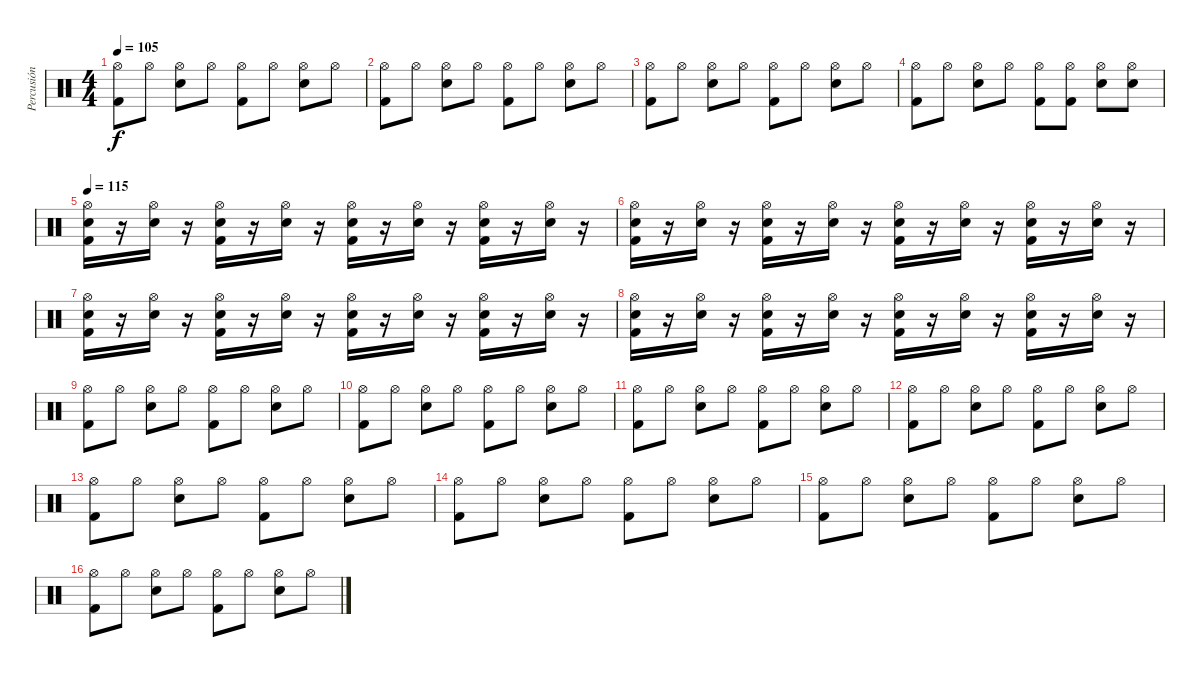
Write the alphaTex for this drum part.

\track ("Percusión" "Percusión") {instrument percussion}
\staff {score}
\articulation defaults
\ts (4 4)
\tempo 105
\clef neutral
\ks c
("Kick (hit) 2" "Hi-Hat (open)").8{dy f} "Hi-Hat (open)".8 ("Electric Snare (hit)" "Hi-Hat (open)").8 "Hi-Hat (open)".8 ("Kick (hit) 2" "Hi-Hat (open)").8 "Hi-Hat (open)".8 ("Electric Snare (hit)" "Hi-Hat (open)").8 "Hi-Hat (open)".8 |
("Kick (hit) 2" "Hi-Hat (open)").8 "Hi-Hat (open)".8 ("Electric Snare (hit)" "Hi-Hat (open)").8 "Hi-Hat (open)".8 ("Kick (hit) 2" "Hi-Hat (open)").8 "Hi-Hat (open)".8 ("Electric Snare (hit)" "Hi-Hat (open)").8 "Hi-Hat (open)".8 |
("Kick (hit) 2" "Hi-Hat (open)").8 "Hi-Hat (open)".8 ("Electric Snare (hit)" "Hi-Hat (open)").8 "Hi-Hat (open)".8 ("Kick (hit) 2" "Hi-Hat (open)").8 "Hi-Hat (open)".8 ("Electric Snare (hit)" "Hi-Hat (open)").8 "Hi-Hat (open)".8 |
("Kick (hit) 2" "Hi-Hat (open)").8 "Hi-Hat (open)".8 ("Electric Snare (hit)" "Hi-Hat (open)").8 "Hi-Hat (open)".8 ("Kick (hit) 2" "Hi-Hat (open)").8 ("Kick (hit) 2" "Hi-Hat (open)").8 ("Electric Snare (hit)" "Hi-Hat (open)").8 ("Electric Snare (hit)" "Hi-Hat (open)").8 |
\tempo 115
("Kick (hit) 2" "Electric Snare (hit)" "Hi-Hat (open)").16 r.16 ("Electric Snare (hit)" "Hi-Hat (open)").16 r.16 ("Kick (hit) 2" "Electric Snare (hit)" "Hi-Hat (open)").16 r.16 ("Electric Snare (hit)" "Hi-Hat (open)").16 r.16 ("Kick (hit) 2" "Electric Snare (hit)" "Hi-Hat (open)").16 r.16 ("Electric Snare (hit)" "Hi-Hat (open)").16 r.16 ("Kick (hit) 2" "Electric Snare (hit)" "Hi-Hat (open)").16 r.16 ("Electric Snare (hit)" "Hi-Hat (open)").16 r.16 |
("Kick (hit) 2" "Electric Snare (hit)" "Hi-Hat (open)").16 r.16 ("Electric Snare (hit)" "Hi-Hat (open)").16 r.16 ("Kick (hit) 2" "Electric Snare (hit)" "Hi-Hat (open)").16 r.16 ("Electric Snare (hit)" "Hi-Hat (open)").16 r.16 ("Kick (hit) 2" "Electric Snare (hit)" "Hi-Hat (open)").16 r.16 ("Electric Snare (hit)" "Hi-Hat (open)").16 r.16 ("Kick (hit) 2" "Electric Snare (hit)" "Hi-Hat (open)").16 r.16 ("Electric Snare (hit)" "Hi-Hat (open)").16 r.16 |
("Kick (hit) 2" "Electric Snare (hit)" "Hi-Hat (open)").16 r.16 ("Electric Snare (hit)" "Hi-Hat (open)").16 r.16 ("Kick (hit) 2" "Electric Snare (hit)" "Hi-Hat (open)").16 r.16 ("Electric Snare (hit)" "Hi-Hat (open)").16 r.16 ("Kick (hit) 2" "Electric Snare (hit)" "Hi-Hat (open)").16 r.16 ("Electric Snare (hit)" "Hi-Hat (open)").16 r.16 ("Kick (hit) 2" "Electric Snare (hit)" "Hi-Hat (open)").16 r.16 ("Electric Snare (hit)" "Hi-Hat (open)").16 r.16 |
("Kick (hit) 2" "Electric Snare (hit)" "Hi-Hat (open)").16 r.16 ("Electric Snare (hit)" "Hi-Hat (open)").16 r.16 ("Kick (hit) 2" "Electric Snare (hit)" "Hi-Hat (open)").16 r.16 ("Electric Snare (hit)" "Hi-Hat (open)").16 r.16 ("Kick (hit) 2" "Electric Snare (hit)" "Hi-Hat (open)").16 r.16 ("Electric Snare (hit)" "Hi-Hat (open)").16 r.16 ("Kick (hit) 2" "Electric Snare (hit)" "Hi-Hat (open)").16 r.16 ("Electric Snare (hit)" "Hi-Hat (open)").16 r.16 |
("Kick (hit) 2" "Hi-Hat (open)").8 "Hi-Hat (open)".8 ("Electric Snare (hit)" "Hi-Hat (open)").8 "Hi-Hat (open)".8 ("Kick (hit) 2" "Hi-Hat (open)").8 "Hi-Hat (open)".8 ("Electric Snare (hit)" "Hi-Hat (open)").8 "Hi-Hat (open)".8 |
("Kick (hit) 2" "Hi-Hat (open)").8 "Hi-Hat (open)".8 ("Electric Snare (hit)" "Hi-Hat (open)").8 "Hi-Hat (open)".8 ("Kick (hit) 2" "Hi-Hat (open)").8 "Hi-Hat (open)".8 ("Electric Snare (hit)" "Hi-Hat (open)").8 "Hi-Hat (open)".8 |
("Kick (hit) 2" "Hi-Hat (open)").8 "Hi-Hat (open)".8 ("Electric Snare (hit)" "Hi-Hat (open)").8 "Hi-Hat (open)".8 ("Kick (hit) 2" "Hi-Hat (open)").8 "Hi-Hat (open)".8 ("Electric Snare (hit)" "Hi-Hat (open)").8 "Hi-Hat (open)".8 |
("Kick (hit) 2" "Hi-Hat (open)").8 "Hi-Hat (open)".8 ("Electric Snare (hit)" "Hi-Hat (open)").8 "Hi-Hat (open)".8 ("Kick (hit) 2" "Hi-Hat (open)").8 "Hi-Hat (open)".8 ("Electric Snare (hit)" "Hi-Hat (open)").8 "Hi-Hat (open)".8 |
("Kick (hit) 2" "Hi-Hat (open)").8 "Hi-Hat (open)".8 ("Electric Snare (hit)" "Hi-Hat (open)").8 "Hi-Hat (open)".8 ("Kick (hit) 2" "Hi-Hat (open)").8 "Hi-Hat (open)".8 ("Electric Snare (hit)" "Hi-Hat (open)").8 "Hi-Hat (open)".8 |
("Kick (hit) 2" "Hi-Hat (open)").8 "Hi-Hat (open)".8 ("Electric Snare (hit)" "Hi-Hat (open)").8 "Hi-Hat (open)".8 ("Kick (hit) 2" "Hi-Hat (open)").8 "Hi-Hat (open)".8 ("Electric Snare (hit)" "Hi-Hat (open)").8 "Hi-Hat (open)".8 |
("Kick (hit) 2" "Hi-Hat (open)").8 "Hi-Hat (open)".8 ("Electric Snare (hit)" "Hi-Hat (open)").8 "Hi-Hat (open)".8 ("Kick (hit) 2" "Hi-Hat (open)").8 "Hi-Hat (open)".8 ("Electric Snare (hit)" "Hi-Hat (open)").8 "Hi-Hat (open)".8 |
("Kick (hit) 2" "Hi-Hat (open)").8 "Hi-Hat (open)".8 ("Electric Snare (hit)" "Hi-Hat (open)").8 "Hi-Hat (open)".8 ("Kick (hit) 2" "Hi-Hat (open)").8 "Hi-Hat (open)".8 ("Electric Snare (hit)" "Hi-Hat (open)").8 "Hi-Hat (open)".8
